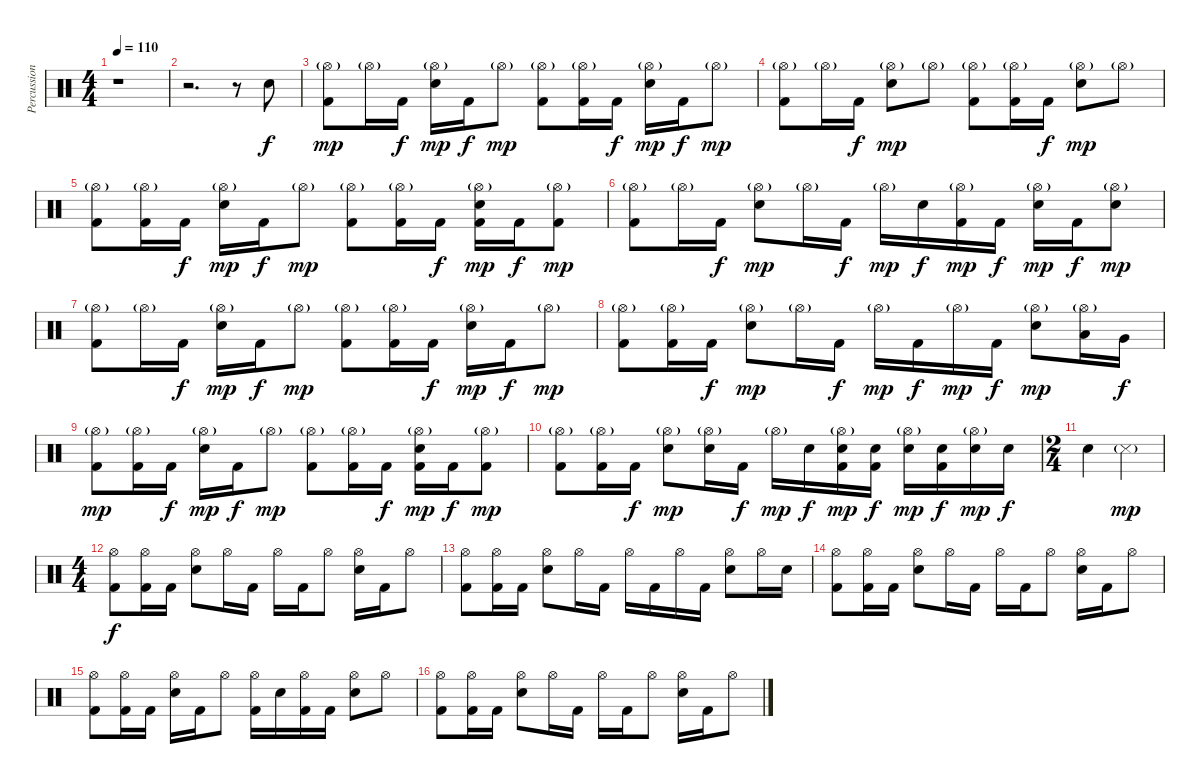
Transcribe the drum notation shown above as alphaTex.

\track ("Percussions" "Percussion") {instrument percussion}
\staff {score}
\articulation defaults
\ts (4 4)
\tempo 110
\clef neutral
\ks c
r.1{dy f} |
r.2{d} r.8 "Electric Snare (hit)".8 |
("Hi-Hat (open)"{g} "Kick (hit) 2").8{dy mp} "Hi-Hat (open)"{g}.16 "Kick (hit) 2".16{dy f} ("Electric Snare (hit)" "Hi-Hat (open)"{g}).16{dy mp} "Kick (hit) 2".16{dy f} "Hi-Hat (open)"{g}.8{dy mp} ("Hi-Hat (open)"{g} "Kick (hit) 2").8 ("Hi-Hat (open)"{g} "Kick (hit) 2").16 "Kick (hit) 2".16{dy f} ("Electric Snare (hit)" "Hi-Hat (open)"{g}).16{dy mp} "Kick (hit) 2".16{dy f} "Hi-Hat (open)"{g}.8{dy mp} |
("Hi-Hat (open)"{g} "Kick (hit) 2").8 "Hi-Hat (open)"{g}.16 "Kick (hit) 2".16{dy f} ("Electric Snare (hit)" "Hi-Hat (open)"{g}).8{dy mp} "Hi-Hat (open)"{g}.8 ("Hi-Hat (open)"{g} "Kick (hit) 2").8 ("Hi-Hat (open)"{g} "Kick (hit) 2").16 "Kick (hit) 2".16{dy f} ("Electric Snare (hit)" "Hi-Hat (open)"{g}).8{dy mp} "Hi-Hat (open)"{g}.8 |
("Hi-Hat (open)"{g} "Kick (hit) 2").8 ("Hi-Hat (open)"{g} "Kick (hit) 2").16 "Kick (hit) 2".16{dy f} ("Electric Snare (hit)" "Hi-Hat (open)"{g}).16{dy mp} "Kick (hit) 2".16{dy f} "Hi-Hat (open)"{g}.8{dy mp} ("Hi-Hat (open)"{g} "Kick (hit) 2").8 ("Hi-Hat (open)"{g} "Kick (hit) 2").16 "Kick (hit) 2".16{dy f} ("Electric Snare (hit)" "Hi-Hat (open)"{g} "Kick (hit) 2").16{dy mp} "Kick (hit) 2".16{dy f} ("Hi-Hat (open)"{g} "Kick (hit) 2").8{dy mp} |
("Hi-Hat (open)"{g} "Kick (hit) 2").8 "Hi-Hat (open)"{g}.16 "Kick (hit) 2".16{dy f} ("Electric Snare (hit)" "Hi-Hat (open)"{g}).8{dy mp} "Hi-Hat (open)"{g}.16 "Kick (hit) 2".16{dy f} "Hi-Hat (open)"{g}.16{dy mp} "Electric Snare (hit)".16{dy f} ("Hi-Hat (open)"{g} "Kick (hit) 2").16{dy mp} "Kick (hit) 2".16{dy f} ("Electric Snare (hit)" "Hi-Hat (open)"{g}).16{dy mp} "Kick (hit) 2".16{dy f} ("Electric Snare (hit)" "Hi-Hat (open)"{g}).8{dy mp} |
("Hi-Hat (open)"{g} "Kick (hit) 2").8 "Hi-Hat (open)"{g}.16 "Kick (hit) 2".16{dy f} ("Electric Snare (hit)" "Hi-Hat (open)"{g}).16{dy mp} "Kick (hit) 2".16{dy f} "Hi-Hat (open)"{g}.8{dy mp} ("Hi-Hat (open)"{g} "Kick (hit) 2").8 ("Hi-Hat (open)"{g} "Kick (hit) 2").16 "Kick (hit) 2".16{dy f} ("Electric Snare (hit)" "Hi-Hat (open)"{g}).16{dy mp} "Kick (hit) 2".16{dy f} "Hi-Hat (open)"{g}.8{dy mp} |
("Hi-Hat (open)"{g} "Kick (hit) 2").8 ("Hi-Hat (open)"{g} "Kick (hit) 2").16 "Kick (hit) 2".16{dy f} ("Electric Snare (hit)" "Hi-Hat (open)"{g}).8{dy mp} "Hi-Hat (open)"{g}.16 "Kick (hit) 2".16{dy f} "Hi-Hat (open)"{g}.16{dy mp} "Kick (hit) 2".16{dy f} "Hi-Hat (open)"{g}.16{dy mp} "Kick (hit) 2".16{dy f} ("Electric Snare (hit)" "Hi-Hat (open)"{g}).8{dy mp} ("Low Tom (hit)" "Hi-Hat (open)"{g}).16 "Very Low Tom (hit)".16{dy f} |
("Hi-Hat (open)"{g} "Kick (hit) 2").8{dy mp} ("Hi-Hat (open)"{g} "Kick (hit) 2").16 "Kick (hit) 2".16{dy f} ("Electric Snare (hit)" "Hi-Hat (open)"{g}).16{dy mp} "Kick (hit) 2".16{dy f} "Hi-Hat (open)"{g}.8{dy mp} ("Hi-Hat (open)"{g} "Kick (hit) 2").8 ("Hi-Hat (open)"{g} "Kick (hit) 2").16 "Kick (hit) 2".16{dy f} ("Electric Snare (hit)" "Hi-Hat (open)"{g} "Kick (hit) 2").16{dy mp} "Kick (hit) 2".16{dy f} ("Hi-Hat (open)"{g} "Kick (hit) 2").8{dy mp} |
("Hi-Hat (open)"{g} "Kick (hit) 2").8 ("Hi-Hat (open)"{g} "Kick (hit) 2").16 "Kick (hit) 2".16{dy f} ("Electric Snare (hit)" "Hi-Hat (open)"{g}).8{dy mp} ("Electric Snare (hit)" "Hi-Hat (open)"{g}).16 "Kick (hit) 2".16{dy f} "Hi-Hat (open)"{g}.16{dy mp} "Electric Snare (hit)".16{dy f} ("Electric Snare (hit)" "Hi-Hat (open)"{g} "Kick (hit) 2").16{dy mp} ("Electric Snare (hit)" "Kick (hit) 2").16{dy f} ("Electric Snare (hit)" "Hi-Hat (open)"{g}).16{dy mp} ("Electric Snare (hit)" "Kick (hit) 2").16{dy f} ("Electric Snare (hit)" "Hi-Hat (open)"{g}).16{dy mp} "Electric Snare (hit)".16{dy f} |
\ts (2 4)
"Electric Snare (hit)".4 "Snare (side stick) 3"{g}.4{dy mp} |
\ts (4 4)
("Hi-Hat (open)" "Kick (hit) 2").8{dy f} ("Hi-Hat (open)" "Kick (hit) 2").16 "Kick (hit) 2".16 ("Electric Snare (hit)" "Hi-Hat (open)").8 "Hi-Hat (open)".16 "Kick (hit) 2".16 "Hi-Hat (open)".16 "Kick (hit) 2".16 "Hi-Hat (open)".8 ("Electric Snare (hit)" "Hi-Hat (open)").16 "Kick (hit) 2".16 "Hi-Hat (open)".8 |
("Hi-Hat (open)" "Kick (hit) 2").8 ("Hi-Hat (open)" "Kick (hit) 2").16 "Kick (hit) 2".16 ("Electric Snare (hit)" "Hi-Hat (open)").8 "Hi-Hat (open)".16 "Kick (hit) 2".16 "Hi-Hat (open)".16 "Kick (hit) 2".16 "Hi-Hat (open)".16 "Kick (hit) 2".16 ("Electric Snare (hit)" "Hi-Hat (open)").8 "Hi-Hat (open)".16 "Electric Snare (hit)".16 |
("Hi-Hat (open)" "Kick (hit) 2").8 ("Hi-Hat (open)" "Kick (hit) 2").16 "Kick (hit) 2".16 ("Electric Snare (hit)" "Hi-Hat (open)").8 "Hi-Hat (open)".16 "Kick (hit) 2".16 "Hi-Hat (open)".16 "Kick (hit) 2".16 "Hi-Hat (open)".8 ("Electric Snare (hit)" "Hi-Hat (open)").16 "Kick (hit) 2".16 "Hi-Hat (open)".8 |
("Hi-Hat (open)" "Kick (hit) 2").8 ("Hi-Hat (open)" "Kick (hit) 2").16 "Kick (hit) 2".16 ("Electric Snare (hit)" "Hi-Hat (open)").16 "Kick (hit) 2".16 "Hi-Hat (open)".8 ("Hi-Hat (open)" "Kick (hit) 2").16 "Electric Snare (hit)".16 ("Hi-Hat (open)" "Kick (hit) 2").16 "Kick (hit) 2".16 ("Electric Snare (hit)" "Hi-Hat (open)").8 "Hi-Hat (open)".8 |
("Hi-Hat (open)" "Kick (hit) 2").8 ("Hi-Hat (open)" "Kick (hit) 2").16 "Kick (hit) 2".16 ("Electric Snare (hit)" "Hi-Hat (open)").8 "Hi-Hat (open)".16 "Kick (hit) 2".16 "Hi-Hat (open)".16 "Kick (hit) 2".16 "Hi-Hat (open)".8 ("Electric Snare (hit)" "Hi-Hat (open)").16 "Kick (hit) 2".16 "Hi-Hat (open)".8
